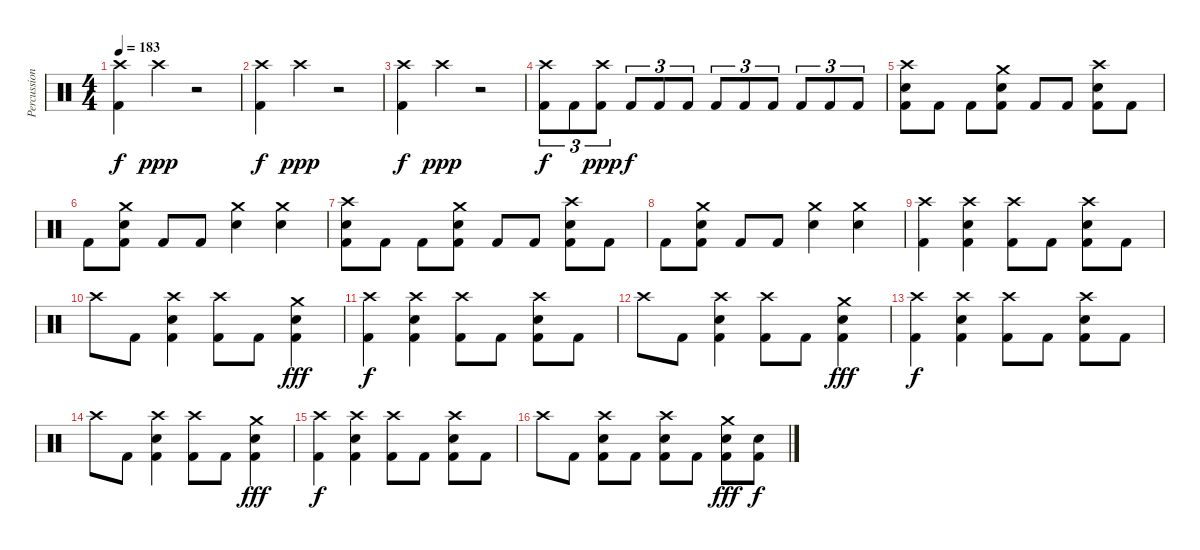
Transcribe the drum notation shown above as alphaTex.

\track ("Percussion" "Percussion") {instrument percussion}
\staff {score}
\articulation defaults
\ts (4 4)
\tempo 183
\clef neutral
\ks aminor
("Crash high (hit)" "Kick (hit) 2").4{dy f} "Crash high (hit)".4{dy ppp} r.2 |
("Crash high (hit)" "Kick (hit) 2").4{dy f} "Crash high (hit)".4{dy ppp} r.2 |
("Crash high (hit)" "Kick (hit) 2").4{dy f} "Crash high (hit)".4{dy ppp} r.2 |
("Crash high (hit)" "Kick (hit) 2").8{tu (3 2) dy f} "Kick (hit) 2".8{tu (3 2)} ("Crash high (hit)" "Kick (hit) 2").8{tu (3 2) dy ppp} "Kick (hit) 2".8{tu (3 2) dy f} "Kick (hit) 2".8{tu (3 2)} "Kick (hit) 2".8{tu (3 2)} "Kick (hit) 2".8{tu (3 2)} "Kick (hit) 2".8{tu (3 2)} "Kick (hit) 2".8{tu (3 2)} "Kick (hit) 2".8{tu (3 2)} "Kick (hit) 2".8{tu (3 2)} "Kick (hit) 2".8{tu (3 2)} |
("Crash high (hit)" "Electric Snare (hit)" "Kick (hit) 2").8 "Kick (hit) 2".8 "Kick (hit) 2".8 ("Crash medium (hit)" "Electric Snare (hit)" "Kick (hit) 2").8 "Kick (hit) 2".8 "Kick (hit) 2".8 ("Crash high (hit)" "Electric Snare (hit)" "Kick (hit) 2").8 "Kick (hit) 2".8 |
"Kick (hit) 2".8 ("Crash medium (hit)" "Electric Snare (hit)" "Kick (hit) 2").8 "Kick (hit) 2".8 "Kick (hit) 2".8 ("Crash medium (hit)" "Electric Snare (hit)").4 ("Crash medium (hit)" "Electric Snare (hit)").4 |
("Crash high (hit)" "Electric Snare (hit)" "Kick (hit) 2").8 "Kick (hit) 2".8 "Kick (hit) 2".8 ("Crash medium (hit)" "Electric Snare (hit)" "Kick (hit) 2").8 "Kick (hit) 2".8 "Kick (hit) 2".8 ("Crash high (hit)" "Electric Snare (hit)" "Kick (hit) 2").8 "Kick (hit) 2".8 |
"Kick (hit) 2".8 ("Crash medium (hit)" "Electric Snare (hit)" "Kick (hit) 2").8 "Kick (hit) 2".8 "Kick (hit) 2".8 ("Crash medium (hit)" "Electric Snare (hit)").4 ("Crash medium (hit)" "Electric Snare (hit)").4 |
("Crash high (hit)" "Kick (hit) 2").4 ("Crash high (hit)" "Electric Snare (hit)" "Kick (hit) 2").4 ("Crash high (hit)" "Kick (hit) 2").8 "Kick (hit) 2".8 ("Crash high (hit)" "Electric Snare (hit)" "Kick (hit) 2").8 "Kick (hit) 2".8 |
"Crash high (hit)".8 "Kick (hit) 2".8 ("Crash high (hit)" "Electric Snare (hit)" "Kick (hit) 2").4 ("Crash high (hit)" "Kick (hit) 2").8 "Kick (hit) 2".8 ("Crash medium (hit)" "Electric Snare (hit)" "Kick (hit) 2").4{dy fff} |
("Crash high (hit)" "Kick (hit) 2").4{dy f} ("Crash high (hit)" "Electric Snare (hit)" "Kick (hit) 2").4 ("Crash high (hit)" "Kick (hit) 2").8 "Kick (hit) 2".8 ("Crash high (hit)" "Electric Snare (hit)" "Kick (hit) 2").8 "Kick (hit) 2".8 |
"Crash high (hit)".8 "Kick (hit) 2".8 ("Crash high (hit)" "Electric Snare (hit)" "Kick (hit) 2").4 ("Crash high (hit)" "Kick (hit) 2").8 "Kick (hit) 2".8 ("Crash medium (hit)" "Electric Snare (hit)" "Kick (hit) 2").4{dy fff} |
("Crash high (hit)" "Kick (hit) 2").4{dy f} ("Crash high (hit)" "Electric Snare (hit)" "Kick (hit) 2").4 ("Crash high (hit)" "Kick (hit) 2").8 "Kick (hit) 2".8 ("Crash high (hit)" "Electric Snare (hit)" "Kick (hit) 2").8 "Kick (hit) 2".8 |
"Crash high (hit)".8 "Kick (hit) 2".8 ("Crash high (hit)" "Electric Snare (hit)" "Kick (hit) 2").4 ("Crash high (hit)" "Kick (hit) 2").8 "Kick (hit) 2".8 ("Crash medium (hit)" "Electric Snare (hit)" "Kick (hit) 2").4{dy fff} |
("Crash high (hit)" "Kick (hit) 2").4{dy f} ("Crash high (hit)" "Electric Snare (hit)" "Kick (hit) 2").4 ("Crash high (hit)" "Kick (hit) 2").8 "Kick (hit) 2".8 ("Crash high (hit)" "Electric Snare (hit)" "Kick (hit) 2").8 "Kick (hit) 2".8 |
"Crash high (hit)".8 "Kick (hit) 2".8 ("Crash high (hit)" "Electric Snare (hit)" "Kick (hit) 2").8 "Kick (hit) 2".8 ("Crash high (hit)" "Electric Snare (hit)" "Kick (hit) 2").8 "Kick (hit) 2".8 ("Crash medium (hit)" "Electric Snare (hit)" "Kick (hit) 2").8{dy fff} ("Electric Snare (hit)" "Kick (hit) 2").8{dy f}
